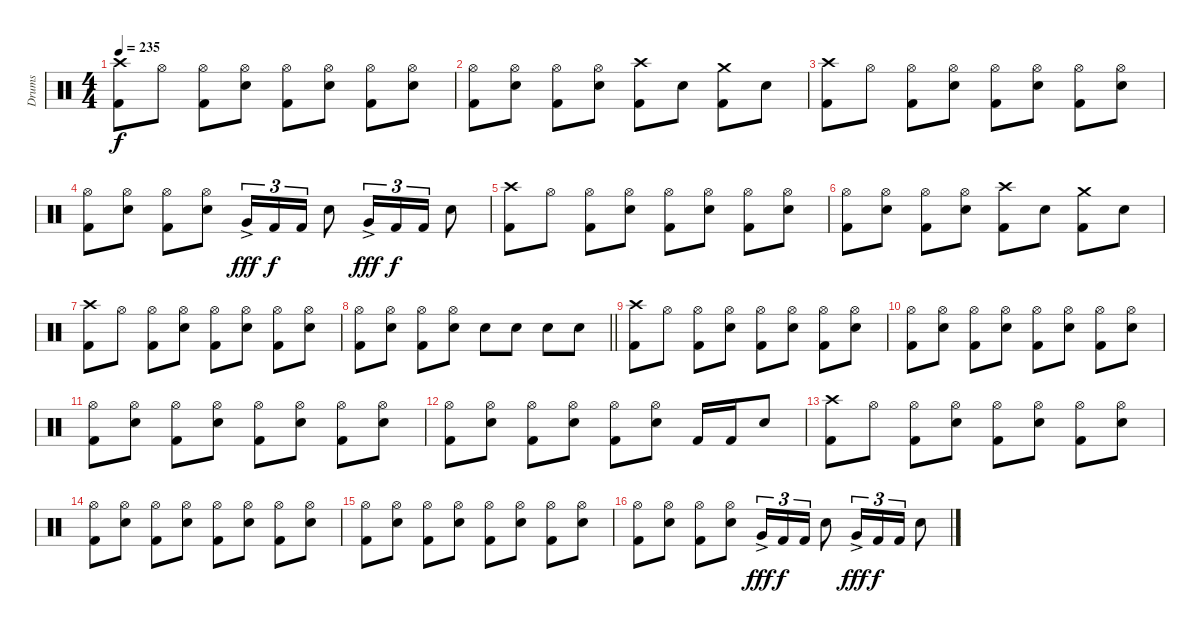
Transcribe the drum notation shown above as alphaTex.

\track ("Drums" "Drums") {instrument percussion}
\staff {score}
\articulation defaults
\ts (4 4)
\tempo 235
\clef neutral
\ks c
("Crash high (hit)" "Kick (hit) 2").8{dy f} "Hi-Hat (open)".8 ("Hi-Hat (open)" "Kick (hit) 2").8 ("Hi-Hat (open)" "Snare (hit) 2").8 ("Hi-Hat (open)" "Kick (hit) 2").8 ("Hi-Hat (open)" "Snare (hit) 2").8 ("Hi-Hat (open)" "Kick (hit) 2").8 ("Hi-Hat (open)" "Snare (hit) 2").8 |
("Hi-Hat (open)" "Kick (hit) 2").8 ("Hi-Hat (open)" "Snare (hit) 2").8 ("Hi-Hat (open)" "Kick (hit) 2").8 ("Hi-Hat (open)" "Snare (hit) 2").8 ("Crash high (hit)" "Kick (hit) 2").8 "Snare (hit) 2".8 ("Crash medium (hit)" "Kick (hit) 2").8 "Snare (hit) 2".8 |
("Crash high (hit)" "Kick (hit) 2").8 "Hi-Hat (open)".8 ("Hi-Hat (open)" "Kick (hit) 2").8 ("Hi-Hat (open)" "Snare (hit) 2").8 ("Hi-Hat (open)" "Kick (hit) 2").8 ("Hi-Hat (open)" "Snare (hit) 2").8 ("Hi-Hat (open)" "Kick (hit) 2").8 ("Hi-Hat (open)" "Snare (hit) 2").8 |
("Hi-Hat (open)" "Kick (hit) 2").8 ("Hi-Hat (open)" "Snare (hit) 2").8 ("Hi-Hat (open)" "Kick (hit) 2").8 ("Hi-Hat (open)" "Snare (hit) 2").8 "Very Low Tom (hit)"{ac}.16{tu (3 2) dy fff} "Kick (hit) 2".16{tu (3 2) dy f} "Kick (hit) 2".16{tu (3 2)} "Snare (hit) 2".8 "Very Low Tom (hit)"{ac}.16{tu (3 2) dy fff} "Kick (hit) 2".16{tu (3 2) dy f} "Kick (hit) 2".16{tu (3 2)} "Snare (hit) 2".8 |
("Crash high (hit)" "Kick (hit) 2").8 "Hi-Hat (open)".8 ("Hi-Hat (open)" "Kick (hit) 2").8 ("Hi-Hat (open)" "Snare (hit) 2").8 ("Hi-Hat (open)" "Kick (hit) 2").8 ("Hi-Hat (open)" "Snare (hit) 2").8 ("Hi-Hat (open)" "Kick (hit) 2").8 ("Hi-Hat (open)" "Snare (hit) 2").8 |
("Hi-Hat (open)" "Kick (hit) 2").8 ("Hi-Hat (open)" "Snare (hit) 2").8 ("Hi-Hat (open)" "Kick (hit) 2").8 ("Hi-Hat (open)" "Snare (hit) 2").8 ("Crash high (hit)" "Kick (hit) 2").8 "Snare (hit) 2".8 ("Crash medium (hit)" "Kick (hit) 2").8 "Snare (hit) 2".8 |
("Crash high (hit)" "Kick (hit) 2").8 "Hi-Hat (open)".8 ("Hi-Hat (open)" "Kick (hit) 2").8 ("Hi-Hat (open)" "Snare (hit) 2").8 ("Hi-Hat (open)" "Kick (hit) 2").8 ("Hi-Hat (open)" "Snare (hit) 2").8 ("Hi-Hat (open)" "Kick (hit) 2").8 ("Hi-Hat (open)" "Snare (hit) 2").8 |
\barLineRight lightlight
("Hi-Hat (open)" "Kick (hit) 2").8 ("Hi-Hat (open)" "Snare (hit) 2").8 ("Hi-Hat (open)" "Kick (hit) 2").8 ("Hi-Hat (open)" "Snare (hit) 2").8 "Snare (hit) 2".8 "Snare (hit) 2".8 "Snare (hit) 2".8 "Snare (hit) 2".8 |
("Crash high (hit)" "Kick (hit) 2").8 "Hi-Hat (open)".8 ("Hi-Hat (open)" "Kick (hit) 2").8 ("Hi-Hat (open)" "Snare (hit) 2").8 ("Hi-Hat (open)" "Kick (hit) 2").8 ("Hi-Hat (open)" "Snare (hit) 2").8 ("Hi-Hat (open)" "Kick (hit) 2").8 ("Hi-Hat (open)" "Snare (hit) 2").8 |
("Hi-Hat (open)" "Kick (hit) 2").8 ("Hi-Hat (open)" "Snare (hit) 2").8 ("Hi-Hat (open)" "Kick (hit) 2").8 ("Hi-Hat (open)" "Snare (hit) 2").8 ("Hi-Hat (open)" "Kick (hit) 2").8 ("Hi-Hat (open)" "Snare (hit) 2").8 ("Hi-Hat (open)" "Kick (hit) 2").8 ("Hi-Hat (open)" "Snare (hit) 2").8 |
("Hi-Hat (open)" "Kick (hit) 2").8 ("Hi-Hat (open)" "Snare (hit) 2").8 ("Hi-Hat (open)" "Kick (hit) 2").8 ("Hi-Hat (open)" "Snare (hit) 2").8 ("Hi-Hat (open)" "Kick (hit) 2").8 ("Hi-Hat (open)" "Snare (hit) 2").8 ("Hi-Hat (open)" "Kick (hit) 2").8 ("Hi-Hat (open)" "Snare (hit) 2").8 |
("Hi-Hat (open)" "Kick (hit) 2").8 ("Hi-Hat (open)" "Snare (hit) 2").8 ("Hi-Hat (open)" "Kick (hit) 2").8 ("Hi-Hat (open)" "Snare (hit) 2").8 ("Hi-Hat (open)" "Kick (hit) 2").8 ("Hi-Hat (open)" "Snare (hit) 2").8 "Kick (hit) 2".16 "Kick (hit) 2".16 "Snare (hit) 2".8 |
("Crash high (hit)" "Kick (hit) 2").8 "Hi-Hat (open)".8 ("Hi-Hat (open)" "Kick (hit) 2").8 ("Hi-Hat (open)" "Snare (hit) 2").8 ("Hi-Hat (open)" "Kick (hit) 2").8 ("Hi-Hat (open)" "Snare (hit) 2").8 ("Hi-Hat (open)" "Kick (hit) 2").8 ("Hi-Hat (open)" "Snare (hit) 2").8 |
("Hi-Hat (open)" "Kick (hit) 2").8 ("Hi-Hat (open)" "Snare (hit) 2").8 ("Hi-Hat (open)" "Kick (hit) 2").8 ("Hi-Hat (open)" "Snare (hit) 2").8 ("Hi-Hat (open)" "Kick (hit) 2").8 ("Hi-Hat (open)" "Snare (hit) 2").8 ("Hi-Hat (open)" "Kick (hit) 2").8 ("Hi-Hat (open)" "Snare (hit) 2").8 |
("Hi-Hat (open)" "Kick (hit) 2").8 ("Hi-Hat (open)" "Snare (hit) 2").8 ("Hi-Hat (open)" "Kick (hit) 2").8 ("Hi-Hat (open)" "Snare (hit) 2").8 ("Hi-Hat (open)" "Kick (hit) 2").8 ("Hi-Hat (open)" "Snare (hit) 2").8 ("Hi-Hat (open)" "Kick (hit) 2").8 ("Hi-Hat (open)" "Snare (hit) 2").8 |
("Hi-Hat (open)" "Kick (hit) 2").8 ("Hi-Hat (open)" "Snare (hit) 2").8 ("Hi-Hat (open)" "Kick (hit) 2").8 ("Hi-Hat (open)" "Snare (hit) 2").8 "Very Low Tom (hit)"{ac}.16{tu (3 2) dy fff} "Kick (hit) 2".16{tu (3 2) dy f} "Kick (hit) 2".16{tu (3 2)} "Snare (hit) 2".8 "Very Low Tom (hit)"{ac}.16{tu (3 2) dy fff} "Kick (hit) 2".16{tu (3 2) dy f} "Kick (hit) 2".16{tu (3 2)} "Snare (hit) 2".8
